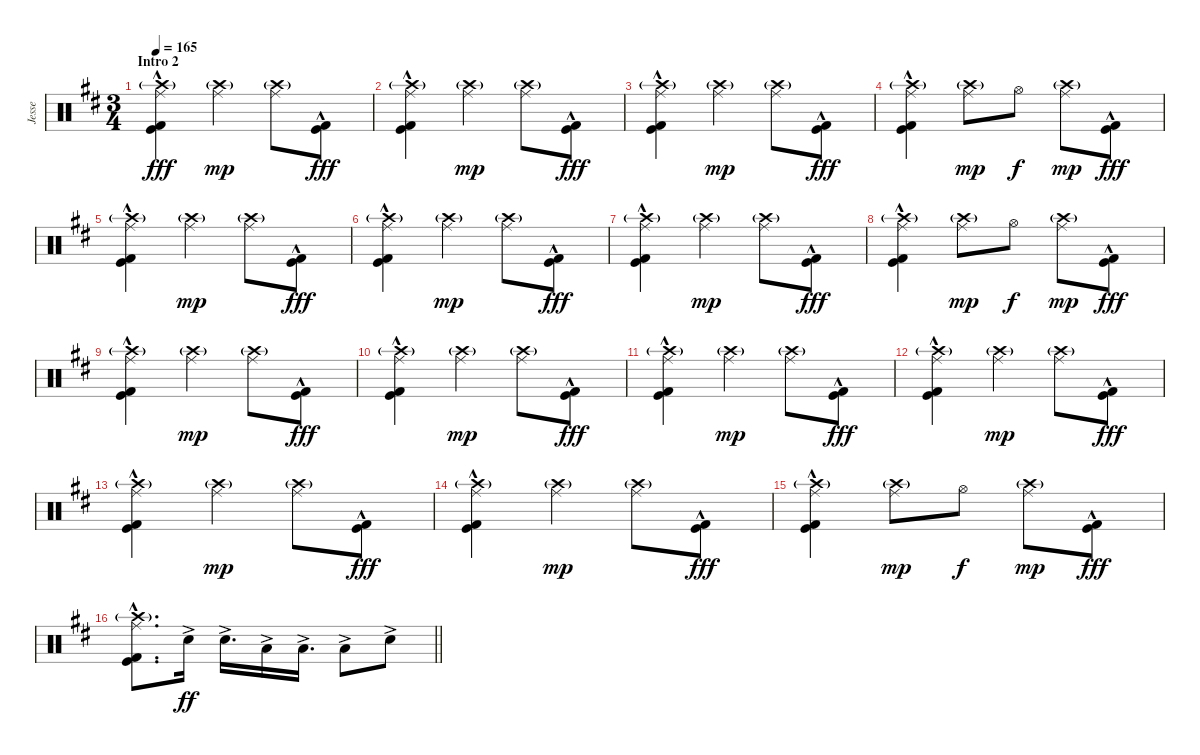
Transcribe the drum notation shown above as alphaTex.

\track ("Jesse" "Jesse") {instrument percussion}
\staff {score}
\articulation defaults
\ts (3 4)
\section ("" "Intro 2")
\tempo 165
\clef neutral
\ks d
("Crash high (hit)"{g} "Ride (middle)" "Kick (hit)"{hac} "Kick (hit) 2"{hac}).4{dy fff} ("Crash high (hit)"{g} "Ride (middle)").4{dy mp} ("Crash high (hit)"{g} "Ride (middle)").8 ("Kick (hit)"{hac} "Kick (hit) 2"{hac}).8{dy fff} |
("Crash high (hit)"{g} "Ride (middle)" "Kick (hit)"{hac} "Kick (hit) 2"{hac}).4 ("Crash high (hit)"{g} "Ride (middle)").4{dy mp} ("Crash high (hit)"{g} "Ride (middle)").8 ("Kick (hit)"{hac} "Kick (hit) 2"{hac}).8{dy fff} |
("Crash high (hit)"{g} "Ride (middle)" "Kick (hit)"{hac} "Kick (hit) 2"{hac}).4 ("Crash high (hit)"{g} "Ride (middle)").4{dy mp} ("Crash high (hit)"{g} "Ride (middle)").8 ("Kick (hit)"{hac} "Kick (hit) 2"{hac}).8{dy fff} |
("Crash high (hit)"{g} "Ride (middle)" "Kick (hit)"{hac} "Kick (hit) 2"{hac}).4 ("Crash high (hit)"{g} "Ride (middle)").8{dy mp} "Hi-Hat (open)".8{dy f} ("Crash high (hit)"{g} "Ride (middle)").8{dy mp} ("Kick (hit)"{hac} "Kick (hit) 2"{hac}).8{dy fff} |
("Crash high (hit)"{g} "Ride (middle)" "Kick (hit)"{hac} "Kick (hit) 2"{hac}).4 ("Crash high (hit)"{g} "Ride (middle)").4{dy mp} ("Crash high (hit)"{g} "Ride (middle)").8 ("Kick (hit)"{hac} "Kick (hit) 2"{hac}).8{dy fff} |
("Crash high (hit)"{g} "Ride (middle)" "Kick (hit)"{hac} "Kick (hit) 2"{hac}).4 ("Crash high (hit)"{g} "Ride (middle)").4{dy mp} ("Crash high (hit)"{g} "Ride (middle)").8 ("Kick (hit)"{hac} "Kick (hit) 2"{hac}).8{dy fff} |
("Crash high (hit)"{g} "Ride (middle)" "Kick (hit)"{hac} "Kick (hit) 2"{hac}).4 ("Crash high (hit)"{g} "Ride (middle)").4{dy mp} ("Crash high (hit)"{g} "Ride (middle)").8 ("Kick (hit)"{hac} "Kick (hit) 2"{hac}).8{dy fff} |
("Crash high (hit)"{g} "Ride (middle)" "Kick (hit)"{hac} "Kick (hit) 2"{hac}).4 ("Crash high (hit)"{g} "Ride (middle)").8{dy mp} "Hi-Hat (open)".8{dy f} ("Crash high (hit)"{g} "Ride (middle)").8{dy mp} ("Kick (hit)"{hac} "Kick (hit) 2"{hac}).8{dy fff} |
("Crash high (hit)"{g} "Ride (middle)" "Kick (hit)"{hac} "Kick (hit) 2"{hac}).4 ("Crash high (hit)"{g} "Ride (middle)").4{dy mp} ("Crash high (hit)"{g} "Ride (middle)").8 ("Kick (hit)"{hac} "Kick (hit) 2"{hac}).8{dy fff} |
("Crash high (hit)"{g} "Ride (middle)" "Kick (hit)"{hac} "Kick (hit) 2"{hac}).4 ("Crash high (hit)"{g} "Ride (middle)").4{dy mp} ("Crash high (hit)"{g} "Ride (middle)").8 ("Kick (hit)"{hac} "Kick (hit) 2"{hac}).8{dy fff} |
("Crash high (hit)"{g} "Ride (middle)" "Kick (hit)"{hac} "Kick (hit) 2"{hac}).4 ("Crash high (hit)"{g} "Ride (middle)").4{dy mp} ("Crash high (hit)"{g} "Ride (middle)").8 ("Kick (hit)"{hac} "Kick (hit) 2"{hac}).8{dy fff} |
("Crash high (hit)"{g} "Ride (middle)" "Kick (hit)"{hac} "Kick (hit) 2"{hac}).4 ("Crash high (hit)"{g} "Ride (middle)").4{dy mp} ("Crash high (hit)"{g} "Ride (middle)").8 ("Kick (hit)"{hac} "Kick (hit) 2"{hac}).8{dy fff} |
("Crash high (hit)"{g} "Ride (middle)" "Kick (hit)"{hac} "Kick (hit) 2"{hac}).4 ("Crash high (hit)"{g} "Ride (middle)").4{dy mp} ("Crash high (hit)"{g} "Ride (middle)").8 ("Kick (hit)"{hac} "Kick (hit) 2"{hac}).8{dy fff} |
("Crash high (hit)"{g} "Ride (middle)" "Kick (hit)"{hac} "Kick (hit) 2"{hac}).4 ("Crash high (hit)"{g} "Ride (middle)").4{dy mp} ("Crash high (hit)"{g} "Ride (middle)").8 ("Kick (hit)"{hac} "Kick (hit) 2"{hac}).8{dy fff} |
("Crash high (hit)"{g} "Ride (middle)" "Kick (hit)"{hac} "Kick (hit) 2"{hac}).4 ("Crash high (hit)"{g} "Ride (middle)").8{dy mp} "Hi-Hat (open)".8{dy f} ("Crash high (hit)"{g} "Ride (middle)").8{dy mp} ("Kick (hit)"{hac} "Kick (hit) 2"{hac}).8{dy fff} |
\barLineRight lightlight
("Crash high (hit)"{g} "Ride (middle)" "Kick (hit)"{hac} "Kick (hit) 2"{hac}).8{d} "Electric Snare (hit)"{ac}.16{dy ff} "Electric Snare (hit)"{ac}.16{d} "Low Tom (hit)"{ac}.16 "Low Tom (hit)"{ac}.16{d} "Low Floor Tom (hit)"{ac}.8 "Electric Snare (hit)"{ac}.8
